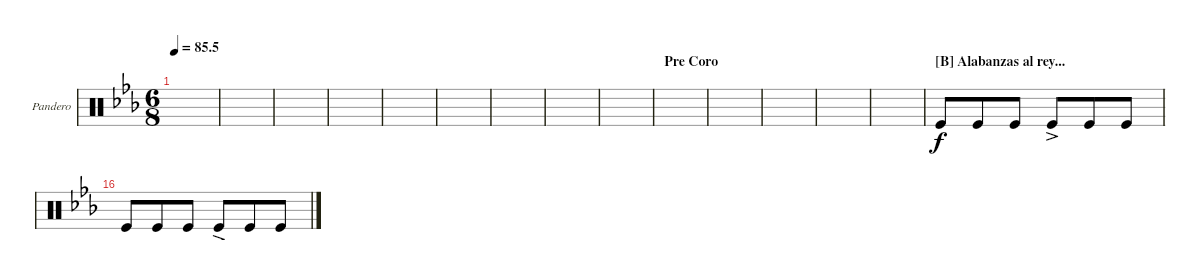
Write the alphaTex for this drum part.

\defaultSystemsLayout 4
\bracketExtendMode groupsimilarinstruments
\multiTrackTrackNamePolicy allsystems
\firstSystemTrackNameOrientation horizontal
\otherSystemsTrackNameOrientation horizontal
\defaultBarNumberDisplay FirstOfSystem
\track ("Pandero" "Pandero") {instrument percussion}
\staff {score}
\articulation defaults
\ts (6 8)
\tempo
85.5
\accidentals auto
\clef neutral
\ottava regular
\simile none
\scale
0.333333
\ks eb
|
\scale
0.333333 |
\scale
0.333333 |
\scale
0.333333 |
\scale
0.333333 |
\scale
0.333333 |
\scale
0.333333 |
\scale
0.333333 |
\scale
0.333333 |
\section ("" "Pre Coro")
\scale
0.333333 |
\scale
0.333333 |
\scale
0.333333 |
\scale
0.333333 |
\scale
0.333333 |
\section ("B" "Alabanzas al rey...")
\scale
0.333333 "Kick (hit)".8 "Kick (hit)".8 "Kick (hit)".8 "Kick (hit)"{ac}.8 "Kick (hit)".8 "Kick (hit)".8 |
\scale
0.333333 "Kick (hit)".8 "Kick (hit)".8 "Kick (hit)".8 "Kick (hit)"{ac}.8 "Kick (hit)".8 "Kick (hit)".8
